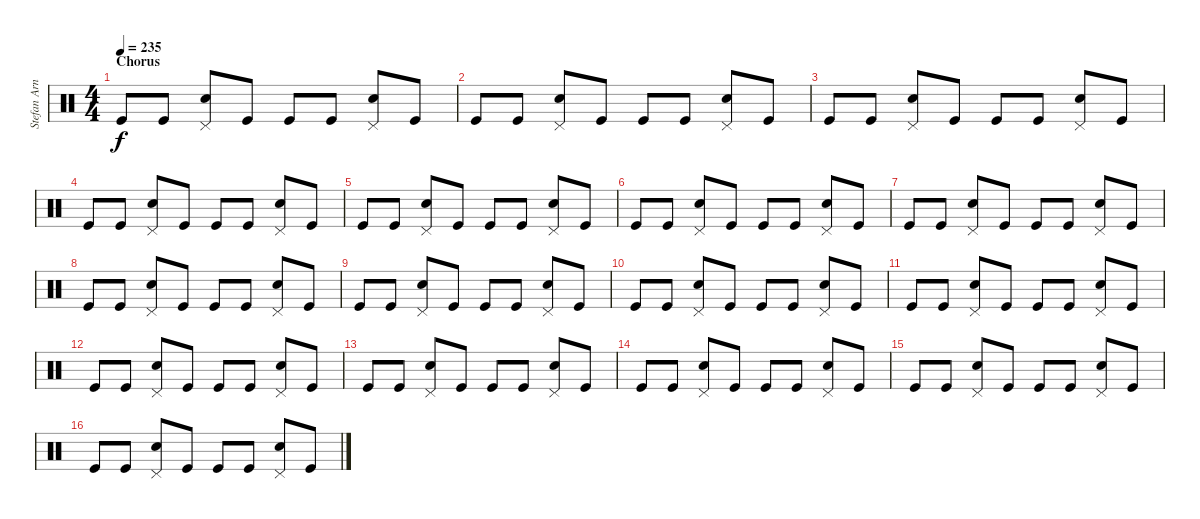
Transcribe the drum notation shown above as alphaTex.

\track ("Stefan Arnold" "Stefan Arn") {instrument percussion}
\staff {score}
\articulation defaults
\ts (4 4)
\section ("" "Chorus")
\tempo 235
\clef neutral
\ks c "Kick (hit)".8{dy f} "Kick (hit)".8
("Electric Snare (hit)" "Pedal Hi-Hat (hit)").8 "Kick (hit)".8 "Kick (hit)".8 "Kick (hit)".8 ("Electric Snare (hit)" "Pedal Hi-Hat (hit)").8 "Kick (hit)".8 |
"Kick (hit)".8 "Kick (hit)".8 ("Electric Snare (hit)" "Pedal Hi-Hat (hit)").8 "Kick (hit)".8 "Kick (hit)".8 "Kick (hit)".8 ("Electric Snare (hit)" "Pedal Hi-Hat (hit)").8 "Kick (hit)".8 |
"Kick (hit)".8 "Kick (hit)".8 ("Electric Snare (hit)" "Pedal Hi-Hat (hit)").8 "Kick (hit)".8 "Kick (hit)".8 "Kick (hit)".8 ("Electric Snare (hit)" "Pedal Hi-Hat (hit)").8 "Kick (hit)".8 |
"Kick (hit)".8 "Kick (hit)".8 ("Electric Snare (hit)" "Pedal Hi-Hat (hit)").8 "Kick (hit)".8 "Kick (hit)".8 "Kick (hit)".8 ("Electric Snare (hit)" "Pedal Hi-Hat (hit)").8 "Kick (hit)".8 |
"Kick (hit)".8 "Kick (hit)".8 ("Electric Snare (hit)" "Pedal Hi-Hat (hit)").8 "Kick (hit)".8 "Kick (hit)".8 "Kick (hit)".8 ("Electric Snare (hit)" "Pedal Hi-Hat (hit)").8 "Kick (hit)".8 |
"Kick (hit)".8 "Kick (hit)".8 ("Electric Snare (hit)" "Pedal Hi-Hat (hit)").8 "Kick (hit)".8 "Kick (hit)".8 "Kick (hit)".8 ("Electric Snare (hit)" "Pedal Hi-Hat (hit)").8 "Kick (hit)".8 |
"Kick (hit)".8 "Kick (hit)".8 ("Electric Snare (hit)" "Pedal Hi-Hat (hit)").8 "Kick (hit)".8 "Kick (hit)".8 "Kick (hit)".8 ("Electric Snare (hit)" "Pedal Hi-Hat (hit)").8 "Kick (hit)".8 |
"Kick (hit)".8 "Kick (hit)".8 ("Electric Snare (hit)" "Pedal Hi-Hat (hit)").8 "Kick (hit)".8 "Kick (hit)".8 "Kick (hit)".8 ("Electric Snare (hit)" "Pedal Hi-Hat (hit)").8 "Kick (hit)".8 |
"Kick (hit)".8 "Kick (hit)".8 ("Electric Snare (hit)" "Pedal Hi-Hat (hit)").8 "Kick (hit)".8 "Kick (hit)".8 "Kick (hit)".8 ("Electric Snare (hit)" "Pedal Hi-Hat (hit)").8 "Kick (hit)".8 |
"Kick (hit)".8 "Kick (hit)".8 ("Electric Snare (hit)" "Pedal Hi-Hat (hit)").8 "Kick (hit)".8 "Kick (hit)".8 "Kick (hit)".8 ("Electric Snare (hit)" "Pedal Hi-Hat (hit)").8 "Kick (hit)".8 |
"Kick (hit)".8 "Kick (hit)".8 ("Electric Snare (hit)" "Pedal Hi-Hat (hit)").8 "Kick (hit)".8 "Kick (hit)".8 "Kick (hit)".8 ("Electric Snare (hit)" "Pedal Hi-Hat (hit)").8 "Kick (hit)".8 |
"Kick (hit)".8 "Kick (hit)".8 ("Electric Snare (hit)" "Pedal Hi-Hat (hit)").8 "Kick (hit)".8 "Kick (hit)".8 "Kick (hit)".8 ("Electric Snare (hit)" "Pedal Hi-Hat (hit)").8 "Kick (hit)".8 |
"Kick (hit)".8 "Kick (hit)".8 ("Electric Snare (hit)" "Pedal Hi-Hat (hit)").8 "Kick (hit)".8 "Kick (hit)".8 "Kick (hit)".8 ("Electric Snare (hit)" "Pedal Hi-Hat (hit)").8 "Kick (hit)".8 |
"Kick (hit)".8 "Kick (hit)".8 ("Electric Snare (hit)" "Pedal Hi-Hat (hit)").8 "Kick (hit)".8 "Kick (hit)".8 "Kick (hit)".8 ("Electric Snare (hit)" "Pedal Hi-Hat (hit)").8 "Kick (hit)".8 |
"Kick (hit)".8 "Kick (hit)".8 ("Electric Snare (hit)" "Pedal Hi-Hat (hit)").8 "Kick (hit)".8 "Kick (hit)".8 "Kick (hit)".8 ("Electric Snare (hit)" "Pedal Hi-Hat (hit)").8 "Kick (hit)".8 |
"Kick (hit)".8 "Kick (hit)".8 ("Electric Snare (hit)" "Pedal Hi-Hat (hit)").8 "Kick (hit)".8 "Kick (hit)".8 "Kick (hit)".8 ("Electric Snare (hit)" "Pedal Hi-Hat (hit)").8 "Kick (hit)".8
